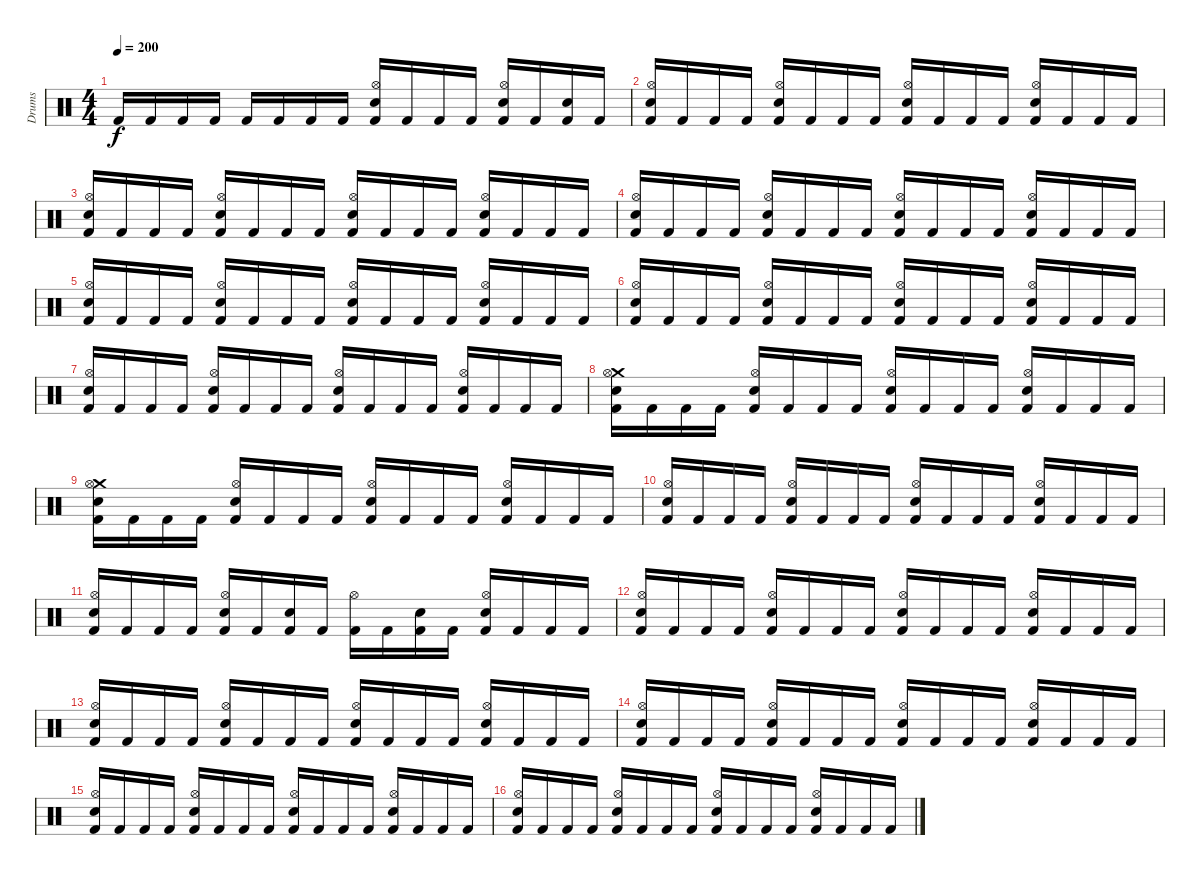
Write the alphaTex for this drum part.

\track ("Drums" "Drums") {instrument percussion}
\staff {score}
\articulation defaults
\ts (4 4)
\tempo 200
\clef neutral
\ks c "Kick (hit) 2".16{dy f} "Kick (hit) 2".16 "Kick (hit) 2".16 "Kick (hit) 2".16 "Kick (hit) 2".16 "Kick (hit) 2".16 "Kick (hit) 2".16 "Kick (hit) 2".16
("Hi-Hat (open)" "Snare (hit) 2" "Kick (hit) 2").16 "Kick (hit) 2".16 "Kick (hit) 2".16 "Kick (hit) 2".16 ("Hi-Hat (open)" "Snare (hit) 2" "Kick (hit) 2").16 "Kick (hit) 2".16 ("Snare (hit) 2" "Kick (hit) 2").16 "Kick (hit) 2".16 |
("Hi-Hat (open)" "Snare (hit) 2" "Kick (hit) 2").16 "Kick (hit) 2".16 "Kick (hit) 2".16 "Kick (hit) 2".16 ("Hi-Hat (open)" "Snare (hit) 2" "Kick (hit) 2").16 "Kick (hit) 2".16 "Kick (hit) 2".16 "Kick (hit) 2".16 ("Hi-Hat (open)" "Snare (hit) 2" "Kick (hit) 2").16 "Kick (hit) 2".16 "Kick (hit) 2".16 "Kick (hit) 2".16 ("Hi-Hat (open)" "Snare (hit) 2" "Kick (hit) 2").16 "Kick (hit) 2".16 "Kick (hit) 2".16 "Kick (hit) 2".16 |
("Hi-Hat (open)" "Snare (hit) 2" "Kick (hit) 2").16 "Kick (hit) 2".16 "Kick (hit) 2".16 "Kick (hit) 2".16 ("Hi-Hat (open)" "Snare (hit) 2" "Kick (hit) 2").16 "Kick (hit) 2".16 "Kick (hit) 2".16 "Kick (hit) 2".16 ("Hi-Hat (open)" "Snare (hit) 2" "Kick (hit) 2").16 "Kick (hit) 2".16 "Kick (hit) 2".16 "Kick (hit) 2".16 ("Hi-Hat (open)" "Snare (hit) 2" "Kick (hit) 2").16 "Kick (hit) 2".16 "Kick (hit) 2".16 "Kick (hit) 2".16 |
("Hi-Hat (open)" "Snare (hit) 2" "Kick (hit) 2").16 "Kick (hit) 2".16 "Kick (hit) 2".16 "Kick (hit) 2".16 ("Hi-Hat (open)" "Snare (hit) 2" "Kick (hit) 2").16 "Kick (hit) 2".16 "Kick (hit) 2".16 "Kick (hit) 2".16 ("Hi-Hat (open)" "Snare (hit) 2" "Kick (hit) 2").16 "Kick (hit) 2".16 "Kick (hit) 2".16 "Kick (hit) 2".16 ("Hi-Hat (open)" "Snare (hit) 2" "Kick (hit) 2").16 "Kick (hit) 2".16 "Kick (hit) 2".16 "Kick (hit) 2".16 |
("Hi-Hat (open)" "Snare (hit) 2" "Kick (hit) 2").16 "Kick (hit) 2".16 "Kick (hit) 2".16 "Kick (hit) 2".16 ("Hi-Hat (open)" "Snare (hit) 2" "Kick (hit) 2").16 "Kick (hit) 2".16 "Kick (hit) 2".16 "Kick (hit) 2".16 ("Hi-Hat (open)" "Snare (hit) 2" "Kick (hit) 2").16 "Kick (hit) 2".16 "Kick (hit) 2".16 "Kick (hit) 2".16 ("Hi-Hat (open)" "Snare (hit) 2" "Kick (hit) 2").16 "Kick (hit) 2".16 "Kick (hit) 2".16 "Kick (hit) 2".16 |
("Hi-Hat (open)" "Snare (hit) 2" "Kick (hit) 2").16 "Kick (hit) 2".16 "Kick (hit) 2".16 "Kick (hit) 2".16 ("Hi-Hat (open)" "Snare (hit) 2" "Kick (hit) 2").16 "Kick (hit) 2".16 "Kick (hit) 2".16 "Kick (hit) 2".16 ("Hi-Hat (open)" "Snare (hit) 2" "Kick (hit) 2").16 "Kick (hit) 2".16 "Kick (hit) 2".16 "Kick (hit) 2".16 ("Hi-Hat (open)" "Snare (hit) 2" "Kick (hit) 2").16 "Kick (hit) 2".16 "Kick (hit) 2".16 "Kick (hit) 2".16 |
("Hi-Hat (open)" "Snare (hit) 2" "Kick (hit) 2").16 "Kick (hit) 2".16 "Kick (hit) 2".16 "Kick (hit) 2".16 ("Hi-Hat (open)" "Snare (hit) 2" "Kick (hit) 2").16 "Kick (hit) 2".16 "Kick (hit) 2".16 "Kick (hit) 2".16 ("Hi-Hat (open)" "Snare (hit) 2" "Kick (hit) 2").16 "Kick (hit) 2".16 "Kick (hit) 2".16 "Kick (hit) 2".16 ("Hi-Hat (open)" "Snare (hit) 2" "Kick (hit) 2").16 "Kick (hit) 2".16 "Kick (hit) 2".16 "Kick (hit) 2".16 |
("Crash medium (hit)" "Hi-Hat (open)" "Snare (hit) 2" "Kick (hit) 2").16 "Kick (hit) 2".16 "Kick (hit) 2".16 "Kick (hit) 2".16 ("Hi-Hat (open)" "Snare (hit) 2" "Kick (hit) 2").16 "Kick (hit) 2".16 "Kick (hit) 2".16 "Kick (hit) 2".16 ("Hi-Hat (open)" "Snare (hit) 2" "Kick (hit) 2").16 "Kick (hit) 2".16 "Kick (hit) 2".16 "Kick (hit) 2".16 ("Hi-Hat (open)" "Snare (hit) 2" "Kick (hit) 2").16 "Kick (hit) 2".16 "Kick (hit) 2".16 "Kick (hit) 2".16 |
("Crash medium (hit)" "Hi-Hat (open)" "Snare (hit) 2" "Kick (hit) 2").16 "Kick (hit) 2".16 "Kick (hit) 2".16 "Kick (hit) 2".16 ("Hi-Hat (open)" "Snare (hit) 2" "Kick (hit) 2").16 "Kick (hit) 2".16 "Kick (hit) 2".16 "Kick (hit) 2".16 ("Hi-Hat (open)" "Snare (hit) 2" "Kick (hit) 2").16 "Kick (hit) 2".16 "Kick (hit) 2".16 "Kick (hit) 2".16 ("Hi-Hat (open)" "Snare (hit) 2" "Kick (hit) 2").16 "Kick (hit) 2".16 "Kick (hit) 2".16 "Kick (hit) 2".16 |
("Hi-Hat (open)" "Snare (hit) 2" "Kick (hit) 2").16 "Kick (hit) 2".16 "Kick (hit) 2".16 "Kick (hit) 2".16 ("Hi-Hat (open)" "Snare (hit) 2" "Kick (hit) 2").16 "Kick (hit) 2".16 "Kick (hit) 2".16 "Kick (hit) 2".16 ("Hi-Hat (open)" "Snare (hit) 2" "Kick (hit) 2").16 "Kick (hit) 2".16 "Kick (hit) 2".16 "Kick (hit) 2".16 ("Hi-Hat (open)" "Snare (hit) 2" "Kick (hit) 2").16 "Kick (hit) 2".16 "Kick (hit) 2".16 "Kick (hit) 2".16 |
("Hi-Hat (open)" "Snare (hit) 2" "Kick (hit) 2").16 "Kick (hit) 2".16 "Kick (hit) 2".16 "Kick (hit) 2".16 ("Hi-Hat (open)" "Snare (hit) 2" "Kick (hit) 2").16 "Kick (hit) 2".16 ("Snare (hit) 2" "Kick (hit) 2").16 "Kick (hit) 2".16 ("Hi-Hat (open)" "Kick (hit) 2").16 "Kick (hit) 2".16 ("Snare (hit) 2" "Kick (hit) 2").16 "Kick (hit) 2".16 ("Hi-Hat (open)" "Snare (hit) 2" "Kick (hit) 2").16 "Kick (hit) 2".16 "Kick (hit) 2".16 "Kick (hit) 2".16 |
("Hi-Hat (open)" "Snare (hit) 2" "Kick (hit) 2").16 "Kick (hit) 2".16 "Kick (hit) 2".16 "Kick (hit) 2".16 ("Hi-Hat (open)" "Snare (hit) 2" "Kick (hit) 2").16 "Kick (hit) 2".16 "Kick (hit) 2".16 "Kick (hit) 2".16 ("Hi-Hat (open)" "Snare (hit) 2" "Kick (hit) 2").16 "Kick (hit) 2".16 "Kick (hit) 2".16 "Kick (hit) 2".16 ("Hi-Hat (open)" "Snare (hit) 2" "Kick (hit) 2").16 "Kick (hit) 2".16 "Kick (hit) 2".16 "Kick (hit) 2".16 |
("Hi-Hat (open)" "Snare (hit) 2" "Kick (hit) 2").16 "Kick (hit) 2".16 "Kick (hit) 2".16 "Kick (hit) 2".16 ("Hi-Hat (open)" "Snare (hit) 2" "Kick (hit) 2").16 "Kick (hit) 2".16 "Kick (hit) 2".16 "Kick (hit) 2".16 ("Hi-Hat (open)" "Snare (hit) 2" "Kick (hit) 2").16 "Kick (hit) 2".16 "Kick (hit) 2".16 "Kick (hit) 2".16 ("Hi-Hat (open)" "Snare (hit) 2" "Kick (hit) 2").16 "Kick (hit) 2".16 "Kick (hit) 2".16 "Kick (hit) 2".16 |
("Hi-Hat (open)" "Snare (hit) 2" "Kick (hit) 2").16 "Kick (hit) 2".16 "Kick (hit) 2".16 "Kick (hit) 2".16 ("Hi-Hat (open)" "Snare (hit) 2" "Kick (hit) 2").16 "Kick (hit) 2".16 "Kick (hit) 2".16 "Kick (hit) 2".16 ("Hi-Hat (open)" "Snare (hit) 2" "Kick (hit) 2").16 "Kick (hit) 2".16 "Kick (hit) 2".16 "Kick (hit) 2".16 ("Hi-Hat (open)" "Snare (hit) 2" "Kick (hit) 2").16 "Kick (hit) 2".16 "Kick (hit) 2".16 "Kick (hit) 2".16 |
("Hi-Hat (open)" "Snare (hit) 2" "Kick (hit) 2").16 "Kick (hit) 2".16 "Kick (hit) 2".16 "Kick (hit) 2".16 ("Hi-Hat (open)" "Snare (hit) 2" "Kick (hit) 2").16 "Kick (hit) 2".16 "Kick (hit) 2".16 "Kick (hit) 2".16 ("Hi-Hat (open)" "Snare (hit) 2" "Kick (hit) 2").16 "Kick (hit) 2".16 "Kick (hit) 2".16 "Kick (hit) 2".16 ("Hi-Hat (open)" "Snare (hit) 2" "Kick (hit) 2").16 "Kick (hit) 2".16 "Kick (hit) 2".16 "Kick (hit) 2".16 |
("Hi-Hat (open)" "Snare (hit) 2" "Kick (hit) 2").16 "Kick (hit) 2".16 "Kick (hit) 2".16 "Kick (hit) 2".16 ("Hi-Hat (open)" "Snare (hit) 2" "Kick (hit) 2").16 "Kick (hit) 2".16 "Kick (hit) 2".16 "Kick (hit) 2".16 ("Hi-Hat (open)" "Snare (hit) 2" "Kick (hit) 2").16 "Kick (hit) 2".16 "Kick (hit) 2".16 "Kick (hit) 2".16 ("Hi-Hat (open)" "Snare (hit) 2" "Kick (hit) 2").16 "Kick (hit) 2".16 "Kick (hit) 2".16 "Kick (hit) 2".16
